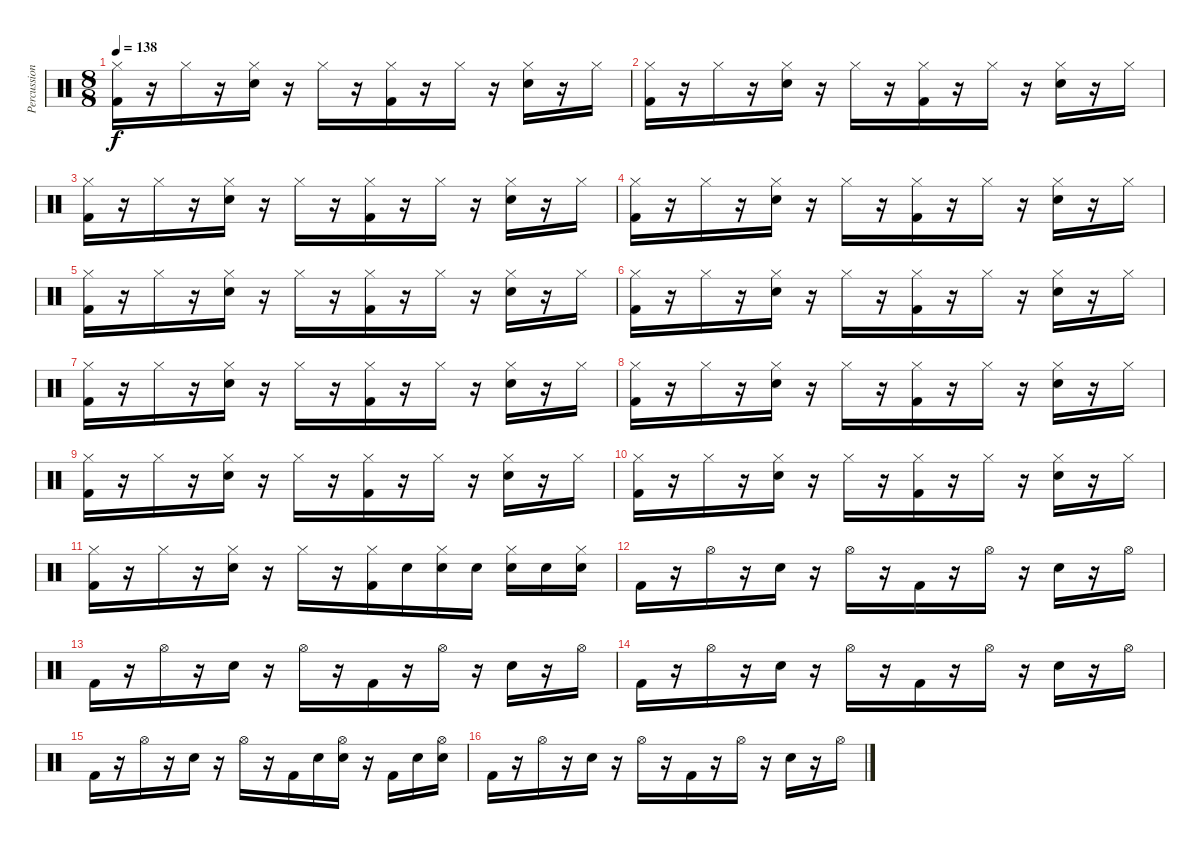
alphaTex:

\track ("Percussion" "Percussion") {instrument percussion}
\staff {score}
\articulation defaults
\ts (8 8)
\tempo 138
\clef neutral
\ks c
("Hi-Hat (closed)" "Kick (hit) 2").16{dy f} r.16 "Hi-Hat (closed)".16 r.16 ("Hi-Hat (closed)" "Electric Snare (hit)").16 r.16 "Hi-Hat (closed)".16 r.16 ("Hi-Hat (closed)" "Kick (hit) 2").16 r.16 "Hi-Hat (closed)".16 r.16 ("Hi-Hat (closed)" "Electric Snare (hit)").16 r.16 "Hi-Hat (closed)".16 |
("Hi-Hat (closed)" "Kick (hit) 2").16 r.16 "Hi-Hat (closed)".16 r.16 ("Hi-Hat (closed)" "Electric Snare (hit)").16 r.16 "Hi-Hat (closed)".16 r.16 ("Hi-Hat (closed)" "Kick (hit) 2").16 r.16 "Hi-Hat (closed)".16 r.16 ("Hi-Hat (closed)" "Electric Snare (hit)").16 r.16 "Hi-Hat (closed)".16 |
("Hi-Hat (closed)" "Kick (hit) 2").16 r.16 "Hi-Hat (closed)".16 r.16 ("Hi-Hat (closed)" "Electric Snare (hit)").16 r.16 "Hi-Hat (closed)".16 r.16 ("Hi-Hat (closed)" "Kick (hit) 2").16 r.16 "Hi-Hat (closed)".16 r.16 ("Hi-Hat (closed)" "Electric Snare (hit)").16 r.16 "Hi-Hat (closed)".16 |
("Hi-Hat (closed)" "Kick (hit) 2").16 r.16 "Hi-Hat (closed)".16 r.16 ("Hi-Hat (closed)" "Electric Snare (hit)").16 r.16 "Hi-Hat (closed)".16 r.16 ("Hi-Hat (closed)" "Kick (hit) 2").16 r.16 "Hi-Hat (closed)".16 r.16 ("Hi-Hat (closed)" "Electric Snare (hit)").16 r.16 "Hi-Hat (closed)".16 |
("Hi-Hat (closed)" "Kick (hit) 2").16 r.16 "Hi-Hat (closed)".16 r.16 ("Hi-Hat (closed)" "Electric Snare (hit)").16 r.16 "Hi-Hat (closed)".16 r.16 ("Hi-Hat (closed)" "Kick (hit) 2").16 r.16 "Hi-Hat (closed)".16 r.16 ("Hi-Hat (closed)" "Electric Snare (hit)").16 r.16 "Hi-Hat (closed)".16 |
("Hi-Hat (closed)" "Kick (hit) 2").16 r.16 "Hi-Hat (closed)".16 r.16 ("Hi-Hat (closed)" "Electric Snare (hit)").16 r.16 "Hi-Hat (closed)".16 r.16 ("Hi-Hat (closed)" "Kick (hit) 2").16 r.16 "Hi-Hat (closed)".16 r.16 ("Hi-Hat (closed)" "Electric Snare (hit)").16 r.16 "Hi-Hat (closed)".16 |
("Hi-Hat (closed)" "Kick (hit) 2").16 r.16 "Hi-Hat (closed)".16 r.16 ("Hi-Hat (closed)" "Electric Snare (hit)").16 r.16 "Hi-Hat (closed)".16 r.16 ("Hi-Hat (closed)" "Kick (hit) 2").16 r.16 "Hi-Hat (closed)".16 r.16 ("Hi-Hat (closed)" "Electric Snare (hit)").16 r.16 "Hi-Hat (closed)".16 |
("Hi-Hat (closed)" "Kick (hit) 2").16 r.16 "Hi-Hat (closed)".16 r.16 ("Hi-Hat (closed)" "Electric Snare (hit)").16 r.16 "Hi-Hat (closed)".16 r.16 ("Hi-Hat (closed)" "Kick (hit) 2").16 r.16 "Hi-Hat (closed)".16 r.16 ("Hi-Hat (closed)" "Electric Snare (hit)").16 r.16 "Hi-Hat (closed)".16 |
("Hi-Hat (closed)" "Kick (hit) 2").16 r.16 "Hi-Hat (closed)".16 r.16 ("Hi-Hat (closed)" "Electric Snare (hit)").16 r.16 "Hi-Hat (closed)".16 r.16 ("Hi-Hat (closed)" "Kick (hit) 2").16 r.16 "Hi-Hat (closed)".16 r.16 ("Hi-Hat (closed)" "Electric Snare (hit)").16 r.16 "Hi-Hat (closed)".16 |
("Hi-Hat (closed)" "Kick (hit) 2").16 r.16 "Hi-Hat (closed)".16 r.16 ("Hi-Hat (closed)" "Electric Snare (hit)").16 r.16 "Hi-Hat (closed)".16 r.16 ("Hi-Hat (closed)" "Kick (hit) 2").16 r.16 "Hi-Hat (closed)".16 r.16 ("Hi-Hat (closed)" "Electric Snare (hit)").16 r.16 "Hi-Hat (closed)".16 |
("Hi-Hat (closed)" "Kick (hit) 2").16 r.16 "Hi-Hat (closed)".16 r.16 ("Hi-Hat (closed)" "Electric Snare (hit)").16 r.16 "Hi-Hat (closed)".16 r.16 ("Hi-Hat (closed)" "Kick (hit) 2").16 "Electric Snare (hit)".16 ("Hi-Hat (closed)" "Electric Snare (hit)").16 "Electric Snare (hit)".16 ("Hi-Hat (closed)" "Electric Snare (hit)").16 "Electric Snare (hit)".16 ("Hi-Hat (closed)" "Electric Snare (hit)").16 |
"Kick (hit) 2".16 r.16 "Hi-Hat (open)".16 r.16 "Electric Snare (hit)".16 r.16 "Hi-Hat (open)".16 r.16 "Kick (hit) 2".16 r.16 "Hi-Hat (open)".16 r.16 "Electric Snare (hit)".16 r.16 "Hi-Hat (open)".16 |
"Kick (hit) 2".16 r.16 "Hi-Hat (open)".16 r.16 "Electric Snare (hit)".16 r.16 "Hi-Hat (open)".16 r.16 "Kick (hit) 2".16 r.16 "Hi-Hat (open)".16 r.16 "Electric Snare (hit)".16 r.16 "Hi-Hat (open)".16 |
"Kick (hit) 2".16 r.16 "Hi-Hat (open)".16 r.16 "Electric Snare (hit)".16 r.16 "Hi-Hat (open)".16 r.16 "Kick (hit) 2".16 r.16 "Hi-Hat (open)".16 r.16 "Electric Snare (hit)".16 r.16 "Hi-Hat (open)".16 |
"Kick (hit) 2".16 r.16 "Hi-Hat (open)".16 r.16 "Electric Snare (hit)".16 r.16 "Hi-Hat (open)".16 r.16 "Kick (hit) 2".16 "Electric Snare (hit)".16 ("Hi-Hat (open)" "Electric Snare (hit)").16 r.16 "Kick (hit) 2".16 "Electric Snare (hit)".16 ("Hi-Hat (open)" "Electric Snare (hit)").16 |
"Kick (hit) 2".16 r.16 "Hi-Hat (open)".16 r.16 "Electric Snare (hit)".16 r.16 "Hi-Hat (open)".16 r.16 "Kick (hit) 2".16 r.16 "Hi-Hat (open)".16 r.16 "Electric Snare (hit)".16 r.16 "Hi-Hat (open)".16
